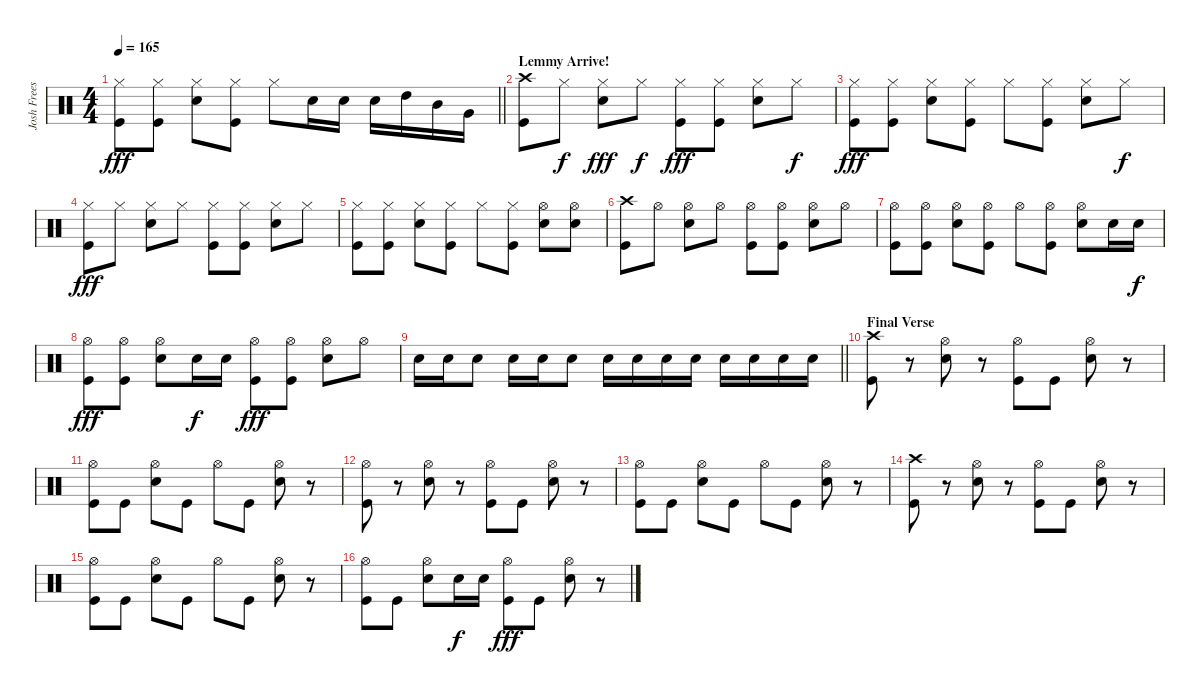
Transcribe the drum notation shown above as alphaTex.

\track ("Josh Freese" "Josh Frees") {instrument percussion}
\staff {score}
\articulation defaults
\ts (4 4)
\tempo 165
\clef neutral
\barLineRight lightlight
\ks c
("Hi-Hat (closed)" "Kick (hit)").8{dy fff} ("Hi-Hat (closed)" "Kick (hit)").8 ("Hi-Hat (closed)" "Electric Snare (hit)").8 ("Hi-Hat (closed)" "Kick (hit)").8 "Hi-Hat (closed)".8 "Electric Snare (hit)".16 "Electric Snare (hit)".16 "Electric Snare (hit)".16 "High Tom (hit)".16 "Mid Tom (hit)".16 "Very Low Tom (hit)".16 |
\section ("" "Lemmy Arrive!")
("Crash high (hit)" "Kick (hit)").8 "Hi-Hat (closed)".8{dy f} ("Hi-Hat (closed)" "Electric Snare (hit)").8{dy fff} "Hi-Hat (closed)".8{dy f} ("Hi-Hat (closed)" "Kick (hit)").8{dy fff} ("Hi-Hat (closed)" "Kick (hit)").8 ("Hi-Hat (closed)" "Electric Snare (hit)").8 "Hi-Hat (closed)".8{dy f} |
("Hi-Hat (closed)" "Kick (hit)").8{dy fff} ("Hi-Hat (closed)" "Kick (hit)").8 ("Hi-Hat (closed)" "Electric Snare (hit)").8 ("Hi-Hat (closed)" "Kick (hit)").8 "Hi-Hat (closed)".8 ("Hi-Hat (closed)" "Kick (hit)").8 ("Hi-Hat (closed)" "Electric Snare (hit)").8 "Hi-Hat (closed)".8{dy f} |
("Hi-Hat (closed)" "Kick (hit)").8{dy fff} "Hi-Hat (closed)".8 ("Hi-Hat (closed)" "Electric Snare (hit)").8 "Hi-Hat (closed)".8 ("Hi-Hat (closed)" "Kick (hit)").8 ("Hi-Hat (closed)" "Kick (hit)").8 ("Hi-Hat (closed)" "Electric Snare (hit)").8 "Hi-Hat (closed)".8 |
("Hi-Hat (closed)" "Kick (hit)").8 ("Hi-Hat (closed)" "Kick (hit)").8 ("Hi-Hat (closed)" "Electric Snare (hit)").8 ("Hi-Hat (closed)" "Kick (hit)").8 "Hi-Hat (closed)".8 ("Hi-Hat (closed)" "Kick (hit)").8 ("Hi-Hat (open)" "Electric Snare (hit)").8 ("Hi-Hat (open)" "Electric Snare (hit)").8 |
("Crash high (hit)" "Kick (hit)").8 "Hi-Hat (open)".8 ("Hi-Hat (open)" "Electric Snare (hit)").8 "Hi-Hat (open)".8 ("Hi-Hat (open)" "Kick (hit)").8 ("Hi-Hat (open)" "Kick (hit)").8 ("Hi-Hat (open)" "Electric Snare (hit)").8 "Hi-Hat (open)".8 |
("Hi-Hat (open)" "Kick (hit)").8 ("Hi-Hat (open)" "Kick (hit)").8 ("Hi-Hat (open)" "Electric Snare (hit)").8 ("Hi-Hat (open)" "Kick (hit)").8 "Hi-Hat (open)".8 ("Hi-Hat (open)" "Kick (hit)").8 ("Hi-Hat (open)" "Electric Snare (hit)").8 "Electric Snare (hit)".16 "Snare (hit)".16{dy f} |
("Hi-Hat (open)" "Kick (hit)").8{dy fff} ("Hi-Hat (open)" "Kick (hit)").8 ("Hi-Hat (open)" "Electric Snare (hit)").8 "Electric Snare (hit)".16{dy f} "Electric Snare (hit)".16 ("Hi-Hat (open)" "Kick (hit)").8{dy fff} ("Hi-Hat (open)" "Kick (hit)").8 ("Hi-Hat (open)" "Electric Snare (hit)").8 "Hi-Hat (open)".8 |
\barLineRight lightlight "Electric Snare (hit)".16 "Electric Snare (hit)".16 "Electric Snare (hit)".8 "Electric Snare (hit)".16 "Electric Snare (hit)".16 "Electric Snare (hit)".8 "Electric Snare (hit)".16 "Electric Snare (hit)".16 "Electric Snare (hit)".16 "Electric Snare (hit)".16 "Electric Snare (hit)".16 "Electric Snare (hit)".16 "Electric Snare (hit)".16 "Electric Snare (hit)".16
|
\section ("" "Final Verse")
("Crash high (hit)" "Kick (hit)").8 r.8 ("Hi-Hat (open)" "Electric Snare (hit)").8 r.8 ("Hi-Hat (open)" "Kick (hit)").8 "Kick (hit)".8 ("Hi-Hat (open)" "Electric Snare (hit)").8 r.8 |
("Hi-Hat (open)" "Kick (hit)").8 "Kick (hit)".8 ("Hi-Hat (open)" "Electric Snare (hit)").8 "Kick (hit)".8 "Hi-Hat (open)".8 "Kick (hit)".8 ("Hi-Hat (open)" "Electric Snare (hit)").8 r.8 |
("Hi-Hat (open)" "Kick (hit)").8 r.8 ("Hi-Hat (open)" "Electric Snare (hit)").8 r.8 ("Hi-Hat (open)" "Kick (hit)").8 "Kick (hit)".8 ("Hi-Hat (open)" "Electric Snare (hit)").8 r.8 |
("Hi-Hat (open)" "Kick (hit)").8 "Kick (hit)".8 ("Hi-Hat (open)" "Electric Snare (hit)").8 "Kick (hit)".8 "Hi-Hat (open)".8 "Kick (hit)".8 ("Hi-Hat (open)" "Electric Snare (hit)").8 r.8 |
("Crash high (hit)" "Kick (hit)").8 r.8 ("Hi-Hat (open)" "Electric Snare (hit)").8 r.8 ("Hi-Hat (open)" "Kick (hit)").8 "Kick (hit)".8 ("Hi-Hat (open)" "Electric Snare (hit)").8 r.8 |
("Hi-Hat (open)" "Kick (hit)").8 "Kick (hit)".8 ("Hi-Hat (open)" "Electric Snare (hit)").8 "Kick (hit)".8 "Hi-Hat (open)".8 "Kick (hit)".8 ("Hi-Hat (open)" "Electric Snare (hit)").8 r.8 |
("Hi-Hat (open)" "Kick (hit)").8 "Kick (hit)".8 ("Hi-Hat (open)" "Electric Snare (hit)").8 "Electric Snare (hit)".16{dy f} "Electric Snare (hit)".16 ("Hi-Hat (open)" "Kick (hit)").8{dy fff} "Kick (hit)".8 ("Hi-Hat (open)" "Electric Snare (hit)").8 r.8
